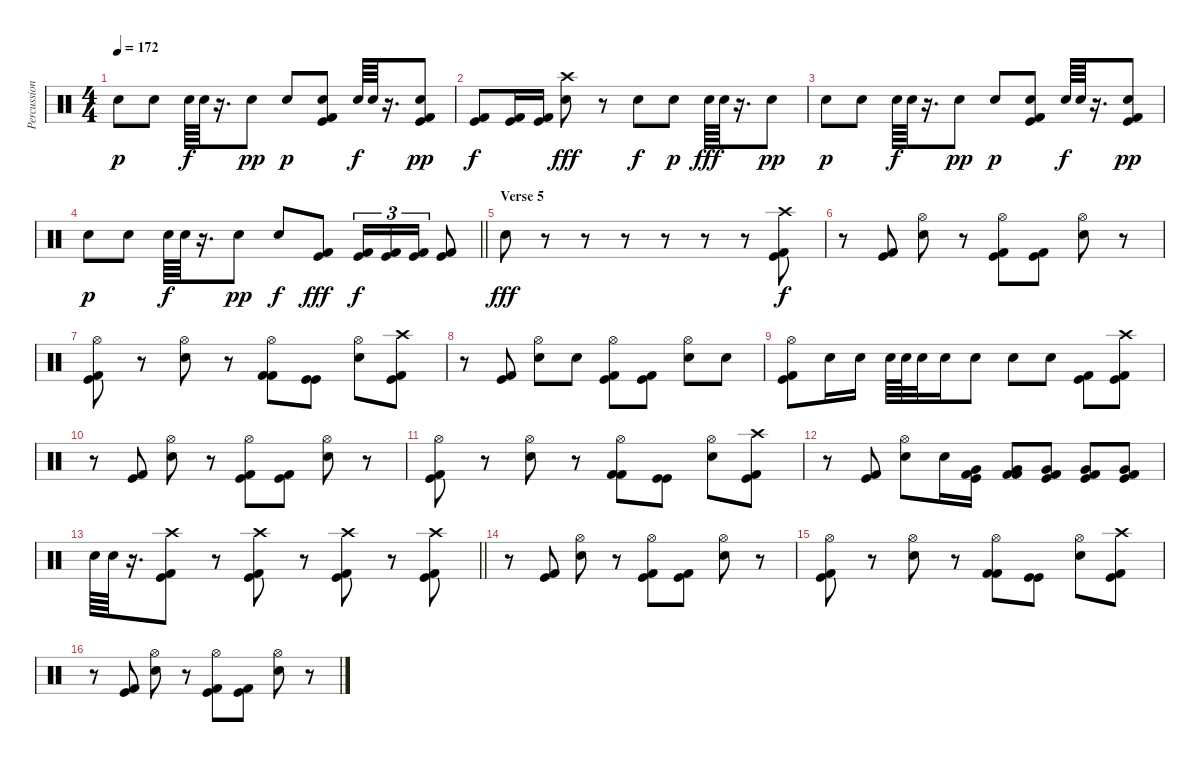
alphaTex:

\track ("Percussion" "Percussion") {instrument percussion}
\staff {score}
\articulation defaults
\ts (4 4)
\tempo 172
\clef neutral
\ks c "Snare (hit) 2".8{dy p} "Snare (hit) 2".8 "Snare (hit) 2".64{dy f} "Snare (hit) 2".64
r.16{d} "Snare (hit) 2".8{dy pp} "Snare (hit) 2".8{dy p} ("Snare (hit) 2" "Kick (hit)" "Kick (hit) 2").8 "Snare (hit) 2".64{dy f} "Snare (hit) 2".64 r.16{d} ("Snare (hit) 2" "Kick (hit)" "Kick (hit) 2").8{dy pp} |
("Kick (hit)" "Kick (hit) 2").8{dy f} ("Kick (hit)" "Kick (hit) 2").16 ("Kick (hit)" "Kick (hit) 2").16 ("Crash high (hit)" "Snare (hit) 2").8{dy fff} r.8 "Snare (hit) 2".8{dy f} "Snare (hit) 2".8{dy p} "Snare (hit) 2".64{dy fff} "Snare (hit) 2".64 r.16{d} "Snare (hit) 2".8{dy pp} |
"Snare (hit) 2".8{dy p} "Snare (hit) 2".8 "Snare (hit) 2".64{dy f} "Snare (hit) 2".64 r.16{d} "Snare (hit) 2".8{dy pp} "Snare (hit) 2".8{dy p} ("Snare (hit) 2" "Kick (hit)" "Kick (hit) 2").8 "Snare (hit) 2".64{dy f} "Snare (hit) 2".64 r.16{d} ("Snare (hit) 2" "Kick (hit)" "Kick (hit) 2").8{dy pp} |
\barLineRight lightlight "Snare (hit) 2".8{dy p} "Snare (hit) 2".8 "Snare (hit) 2".64{dy f} "Snare (hit) 2".64
r.16{d} "Snare (hit) 2".8{dy pp} "Snare (hit) 2".8{dy f} ("Kick (hit)" "Kick (hit) 2").8{dy fff} ("Kick (hit)" "Kick (hit) 2").16{tu (3 2) dy f} ("Kick (hit)" "Kick (hit) 2").16{tu (3 2)} ("Kick (hit)" "Kick (hit) 2").16{tu (3 2)} ("Kick (hit)" "Kick (hit) 2").8 |
\section ("" "Verse 5")
"Snare (hit) 2".8{dy fff} r.8 r.8 r.8 r.8 r.8 r.8 ("Crash high (hit)" "Kick (hit)" "Kick (hit) 2").8{dy f} |
r.8 ("Kick (hit)" "Kick (hit) 2").8 ("Hi-Hat (open)" "Snare (hit) 2").8 r.8 ("Hi-Hat (open)" "Kick (hit)" "Kick (hit) 2").8 ("Kick (hit)" "Kick (hit) 2").8 ("Hi-Hat (open)" "Snare (hit) 2").8 r.8 |
("Hi-Hat (open)" "Kick (hit)" "Kick (hit) 2").8 r.8 ("Hi-Hat (open)" "Snare (hit) 2").8 r.8 ("Hi-Hat (open)" "Kick (hit) 2" "Kick (hit) 2").8 ("Kick (hit)" "Kick (hit)").8 ("Hi-Hat (open)" "Snare (hit) 2").8 ("Crash high (hit)" "Kick (hit)" "Kick (hit) 2").8 |
r.8 ("Kick (hit)" "Kick (hit) 2").8 ("Hi-Hat (open)" "Snare (hit) 2").8 "Snare (hit) 2".8 ("Hi-Hat (open)" "Kick (hit)" "Kick (hit) 2").8 ("Kick (hit)" "Kick (hit) 2").8 ("Hi-Hat (open)" "Snare (hit) 2").8 "Snare (hit) 2".8 |
("Hi-Hat (open)" "Kick (hit)" "Kick (hit) 2").8 "Snare (hit) 2".16 "Snare (hit) 2".16 "Snare (hit) 2".64 "Snare (hit) 2".64 "Snare (hit) 2".32 "Snare (hit) 2".16 "Snare (hit) 2".8 "Snare (hit) 2".8 "Snare (hit) 2".8 ("Kick (hit)" "Kick (hit) 2").8 ("Crash high (hit)" "Kick (hit)" "Kick (hit) 2").8 |
r.8 ("Kick (hit)" "Kick (hit) 2").8 ("Hi-Hat (open)" "Snare (hit) 2").8 r.8 ("Hi-Hat (open)" "Kick (hit)" "Kick (hit) 2").8 ("Kick (hit)" "Kick (hit) 2").8 ("Hi-Hat (open)" "Snare (hit) 2").8 r.8 |
("Hi-Hat (open)" "Kick (hit)" "Kick (hit) 2").8 r.8 ("Hi-Hat (open)" "Snare (hit) 2").8 r.8 ("Hi-Hat (open)" "Kick (hit) 2" "Kick (hit) 2").8 ("Kick (hit)" "Kick (hit)").8 ("Hi-Hat (open)" "Snare (hit) 2").8 ("Crash high (hit)" "Kick (hit)" "Kick (hit) 2").8 |
r.8 ("Kick (hit)" "Kick (hit) 2").8 ("Hi-Hat (open)" "Snare (hit) 2").8 "Snare (hit) 2".16 ("Very Low Tom (hit)" "Kick (hit)" "Kick (hit) 2").16 ("Very Low Tom (hit)" "Kick (hit) 2" "Kick (hit) 2").8 ("Very Low Tom (hit)" "Kick (hit)" "Kick (hit) 2").8 ("Very Low Tom (hit)" "Kick (hit)" "Kick (hit) 2").8 ("Very Low Tom (hit)" "Kick (hit)" "Kick (hit) 2").8 |
\barLineRight lightlight "Snare (hit) 2".64 "Snare (hit) 2".64
r.16{d} ("Crash high (hit)" "Kick (hit)" "Kick (hit) 2").8 r.8 ("Crash high (hit)" "Kick (hit)" "Kick (hit) 2").8 r.8 ("Crash high (hit)" "Kick (hit)" "Kick (hit) 2").8 r.8 ("Crash high (hit)" "Kick (hit)" "Kick (hit) 2").8 |
r.8 ("Kick (hit)" "Kick (hit) 2").8 ("Hi-Hat (open)" "Snare (hit) 2").8 r.8 ("Hi-Hat (open)" "Kick (hit)" "Kick (hit) 2").8 ("Kick (hit)" "Kick (hit) 2").8 ("Hi-Hat (open)" "Snare (hit) 2").8 r.8 |
("Hi-Hat (open)" "Kick (hit)" "Kick (hit) 2").8 r.8 ("Hi-Hat (open)" "Snare (hit) 2").8 r.8 ("Hi-Hat (open)" "Kick (hit) 2" "Kick (hit) 2").8 ("Kick (hit)" "Kick (hit)").8 ("Hi-Hat (open)" "Snare (hit) 2").8 ("Crash high (hit)" "Kick (hit)" "Kick (hit) 2").8 |
r.8 ("Kick (hit)" "Kick (hit) 2").8 ("Hi-Hat (open)" "Snare (hit) 2").8 r.8 ("Hi-Hat (open)" "Kick (hit)" "Kick (hit) 2").8 ("Kick (hit)" "Kick (hit) 2").8 ("Hi-Hat (open)" "Snare (hit) 2").8 r.8
